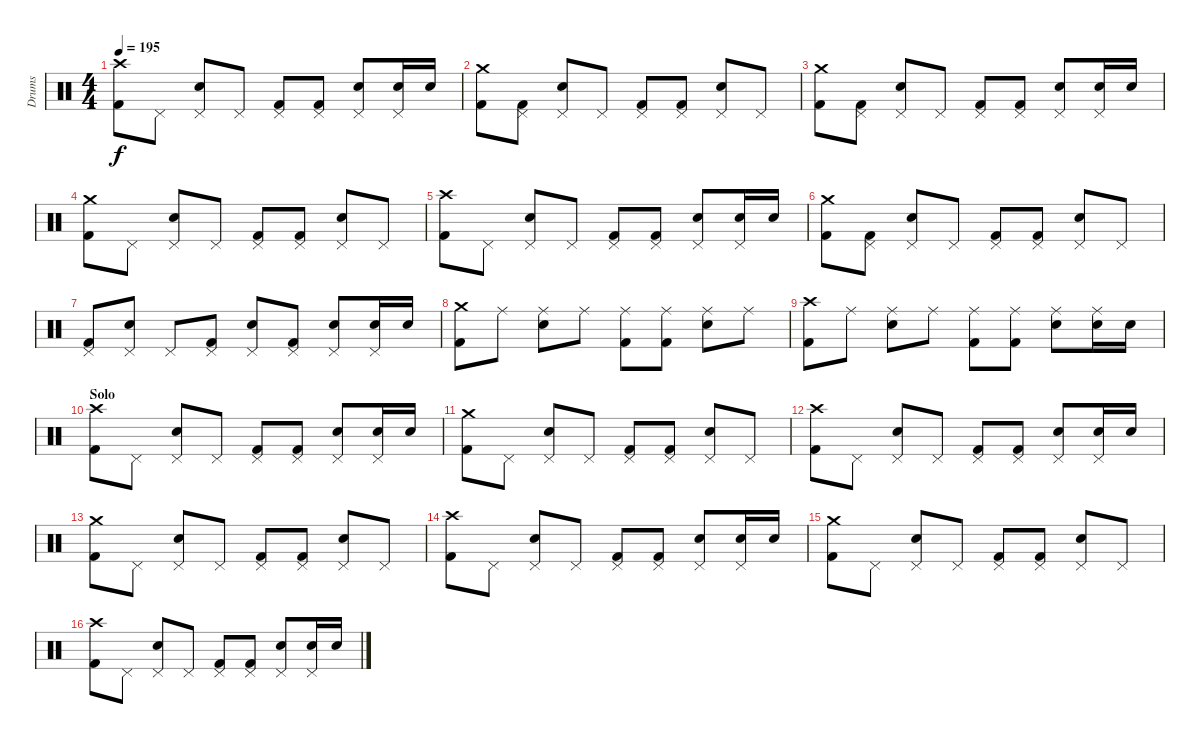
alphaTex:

\track ("Drums" "Drums") {instrument percussion}
\staff {score}
\articulation defaults
\ts (4 4)
\tempo 195
\clef neutral
\ks c
("Crash high (hit)" "Kick (hit) 2").8{dy f} "Pedal Hi-Hat (hit)".8 ("Pedal Hi-Hat (hit)" "Electric Snare (hit)").8 "Pedal Hi-Hat (hit)".8 ("Pedal Hi-Hat (hit)" "Kick (hit) 2").8 ("Pedal Hi-Hat (hit)" "Kick (hit) 2").8 ("Pedal Hi-Hat (hit)" "Electric Snare (hit)").8 ("Pedal Hi-Hat (hit)" "Electric Snare (hit)").16 "Electric Snare (hit)".16 |
("Crash medium (hit)" "Kick (hit) 2").8 ("Pedal Hi-Hat (hit)" "Kick (hit) 2").8 ("Pedal Hi-Hat (hit)" "Electric Snare (hit)").8 "Pedal Hi-Hat (hit)".8 ("Pedal Hi-Hat (hit)" "Kick (hit) 2").8 ("Pedal Hi-Hat (hit)" "Kick (hit) 2").8 ("Pedal Hi-Hat (hit)" "Electric Snare (hit)").8 "Pedal Hi-Hat (hit)".8 |
("Crash medium (hit)" "Kick (hit) 2").8 ("Pedal Hi-Hat (hit)" "Kick (hit) 2").8 ("Pedal Hi-Hat (hit)" "Electric Snare (hit)").8 "Pedal Hi-Hat (hit)".8 ("Pedal Hi-Hat (hit)" "Kick (hit) 2").8 ("Pedal Hi-Hat (hit)" "Kick (hit) 2").8 ("Pedal Hi-Hat (hit)" "Electric Snare (hit)").8 ("Pedal Hi-Hat (hit)" "Electric Snare (hit)").16 "Electric Snare (hit)".16 |
("Crash medium (hit)" "Kick (hit) 2").8 "Pedal Hi-Hat (hit)".8 ("Pedal Hi-Hat (hit)" "Electric Snare (hit)").8 "Pedal Hi-Hat (hit)".8 ("Pedal Hi-Hat (hit)" "Kick (hit) 2").8 ("Pedal Hi-Hat (hit)" "Kick (hit) 2").8 ("Pedal Hi-Hat (hit)" "Electric Snare (hit)").8 "Pedal Hi-Hat (hit)".8 |
("Crash high (hit)" "Kick (hit) 2").8 "Pedal Hi-Hat (hit)".8 ("Pedal Hi-Hat (hit)" "Electric Snare (hit)").8 "Pedal Hi-Hat (hit)".8 ("Pedal Hi-Hat (hit)" "Kick (hit) 2").8 ("Pedal Hi-Hat (hit)" "Kick (hit) 2").8 ("Pedal Hi-Hat (hit)" "Electric Snare (hit)").8 ("Pedal Hi-Hat (hit)" "Electric Snare (hit)").16 "Electric Snare (hit)".16 |
("Crash medium (hit)" "Kick (hit) 2").8 ("Pedal Hi-Hat (hit)" "Kick (hit) 2").8 ("Pedal Hi-Hat (hit)" "Electric Snare (hit)").8 "Pedal Hi-Hat (hit)".8 ("Pedal Hi-Hat (hit)" "Kick (hit) 2").8 ("Pedal Hi-Hat (hit)" "Kick (hit) 2").8 ("Pedal Hi-Hat (hit)" "Electric Snare (hit)").8 "Pedal Hi-Hat (hit)".8 |
("Pedal Hi-Hat (hit)" "Kick (hit) 2").8 ("Pedal Hi-Hat (hit)" "Electric Snare (hit)").8 "Pedal Hi-Hat (hit)".8 ("Pedal Hi-Hat (hit)" "Kick (hit) 2").8 ("Pedal Hi-Hat (hit)" "Electric Snare (hit)").8 ("Pedal Hi-Hat (hit)" "Kick (hit) 2").8 ("Pedal Hi-Hat (hit)" "Electric Snare (hit)").8 ("Pedal Hi-Hat (hit)" "Electric Snare (hit)").16 "Electric Snare (hit)".16 |
("Crash medium (hit)" "Kick (hit) 2").8 "Ride (middle)".8 ("Ride (middle)" "Electric Snare (hit)").8 "Ride (middle)".8 ("Ride (middle)" "Kick (hit) 2").8 ("Ride (middle)" "Kick (hit) 2").8 ("Ride (middle)" "Electric Snare (hit)").8 "Ride (middle)".8 |
("Crash high (hit)" "Kick (hit) 2").8 "Ride (middle)".8 ("Ride (middle)" "Electric Snare (hit)").8 "Ride (middle)".8 ("Ride (middle)" "Kick (hit) 2").8 ("Ride (middle)" "Kick (hit) 2").8 ("Ride (middle)" "Electric Snare (hit)").8 ("Ride (middle)" "Electric Snare (hit)").16 "Electric Snare (hit)".16 |
\section ("" "Solo")
("Crash high (hit)" "Kick (hit) 2").8 "Pedal Hi-Hat (hit)".8 ("Pedal Hi-Hat (hit)" "Electric Snare (hit)").8 "Pedal Hi-Hat (hit)".8 ("Pedal Hi-Hat (hit)" "Kick (hit) 2").8 ("Pedal Hi-Hat (hit)" "Kick (hit) 2").8 ("Pedal Hi-Hat (hit)" "Electric Snare (hit)").8 ("Pedal Hi-Hat (hit)" "Electric Snare (hit)").16 "Electric Snare (hit)".16 |
("Crash medium (hit)" "Kick (hit) 2").8 "Pedal Hi-Hat (hit)".8 ("Pedal Hi-Hat (hit)" "Electric Snare (hit)").8 "Pedal Hi-Hat (hit)".8 ("Pedal Hi-Hat (hit)" "Kick (hit) 2").8 ("Pedal Hi-Hat (hit)" "Kick (hit) 2").8 ("Pedal Hi-Hat (hit)" "Electric Snare (hit)").8 "Pedal Hi-Hat (hit)".8 |
("Crash high (hit)" "Kick (hit) 2").8 "Pedal Hi-Hat (hit)".8 ("Pedal Hi-Hat (hit)" "Electric Snare (hit)").8 "Pedal Hi-Hat (hit)".8 ("Pedal Hi-Hat (hit)" "Kick (hit) 2").8 ("Pedal Hi-Hat (hit)" "Kick (hit) 2").8 ("Pedal Hi-Hat (hit)" "Electric Snare (hit)").8 ("Pedal Hi-Hat (hit)" "Electric Snare (hit)").16 "Electric Snare (hit)".16 |
("Crash medium (hit)" "Kick (hit) 2").8 "Pedal Hi-Hat (hit)".8 ("Pedal Hi-Hat (hit)" "Electric Snare (hit)").8 "Pedal Hi-Hat (hit)".8 ("Pedal Hi-Hat (hit)" "Kick (hit) 2").8 ("Pedal Hi-Hat (hit)" "Kick (hit) 2").8 ("Pedal Hi-Hat (hit)" "Electric Snare (hit)").8 "Pedal Hi-Hat (hit)".8 |
("Crash high (hit)" "Kick (hit) 2").8 "Pedal Hi-Hat (hit)".8 ("Pedal Hi-Hat (hit)" "Electric Snare (hit)").8 "Pedal Hi-Hat (hit)".8 ("Pedal Hi-Hat (hit)" "Kick (hit) 2").8 ("Pedal Hi-Hat (hit)" "Kick (hit) 2").8 ("Pedal Hi-Hat (hit)" "Electric Snare (hit)").8 ("Pedal Hi-Hat (hit)" "Electric Snare (hit)").16 "Electric Snare (hit)".16 |
("Crash medium (hit)" "Kick (hit) 2").8 "Pedal Hi-Hat (hit)".8 ("Pedal Hi-Hat (hit)" "Electric Snare (hit)").8 "Pedal Hi-Hat (hit)".8 ("Pedal Hi-Hat (hit)" "Kick (hit) 2").8 ("Pedal Hi-Hat (hit)" "Kick (hit) 2").8 ("Pedal Hi-Hat (hit)" "Electric Snare (hit)").8 "Pedal Hi-Hat (hit)".8 |
("Crash high (hit)" "Kick (hit) 2").8 "Pedal Hi-Hat (hit)".8 ("Pedal Hi-Hat (hit)" "Electric Snare (hit)").8 "Pedal Hi-Hat (hit)".8 ("Pedal Hi-Hat (hit)" "Kick (hit) 2").8 ("Pedal Hi-Hat (hit)" "Kick (hit) 2").8 ("Pedal Hi-Hat (hit)" "Electric Snare (hit)").8 ("Pedal Hi-Hat (hit)" "Electric Snare (hit)").16 "Electric Snare (hit)".16
